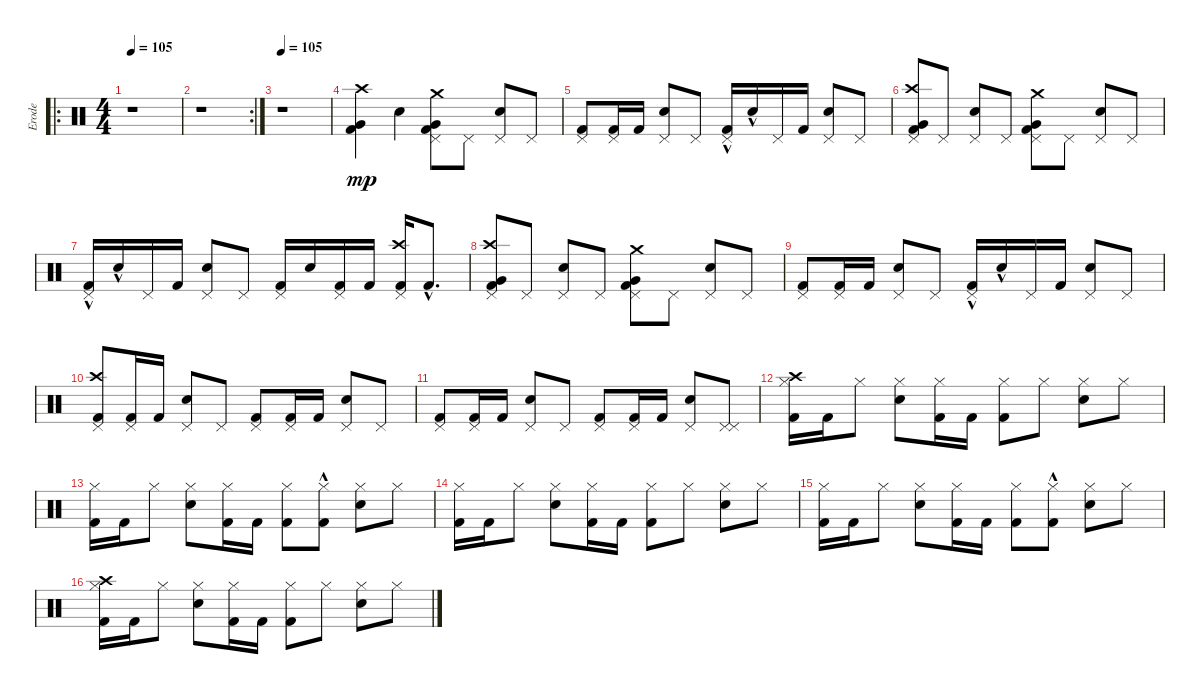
\track ("Erode" "Erode") {instrument percussion}
\staff {score}
\articulation defaults
\ro
\ts (4 4)
\tempo 105
\tempo 80
\tempo 105
\clef neutral
\ks c
r.1{dy mp} |
\rc 2
r.1 |
\tempo 105
r.1 |
("Kick (hit) 2" "Very Low Tom (hit)" "Crash high (hit)").4 "Snare (hit) 2".4 ("Kick (hit) 2" "Very Low Tom (hit)" "Pedal Hi-Hat (hit)" "Crash medium (hit)").8 "Pedal Hi-Hat (hit)".8 ("Snare (hit) 2" "Pedal Hi-Hat (hit)").8 "Pedal Hi-Hat (hit)".8 |
("Kick (hit) 2" "Pedal Hi-Hat (hit)").8 ("Kick (hit) 2" "Pedal Hi-Hat (hit)").16 "Kick (hit) 2".16 ("Snare (hit) 2" "Pedal Hi-Hat (hit)").8 "Pedal Hi-Hat (hit)".8 ("Kick (hit) 2"{hac} "Pedal Hi-Hat (hit)").16 "Snare (hit) 2"{hac}.16 "Pedal Hi-Hat (hit)".16 "Kick (hit) 2".16 ("Snare (hit) 2" "Pedal Hi-Hat (hit)").8 "Pedal Hi-Hat (hit)".8 |
("Kick (hit) 2" "Very Low Tom (hit)" "Pedal Hi-Hat (hit)" "Crash high (hit)").8 "Pedal Hi-Hat (hit)".8 ("Snare (hit) 2" "Pedal Hi-Hat (hit)").8 "Pedal Hi-Hat (hit)".8 ("Kick (hit) 2" "Very Low Tom (hit)" "Pedal Hi-Hat (hit)" "Crash medium (hit)").8 "Pedal Hi-Hat (hit)".8 ("Snare (hit) 2" "Pedal Hi-Hat (hit)").8 "Pedal Hi-Hat (hit)".8 |
("Kick (hit) 2"{hac} "Pedal Hi-Hat (hit)").16 "Snare (hit) 2"{hac}.16 "Pedal Hi-Hat (hit)".16 "Kick (hit) 2".16 ("Snare (hit) 2" "Pedal Hi-Hat (hit)").8 "Pedal Hi-Hat (hit)".8 ("Kick (hit) 2" "Pedal Hi-Hat (hit)").16 "Snare (hit) 2".16 ("Kick (hit) 2" "Pedal Hi-Hat (hit)").16 "Kick (hit) 2".16 ("Kick (hit) 2" "Pedal Hi-Hat (hit)" "Crash high (hit)").16 "Kick (hit) 2"{hac}.8{d} |
("Kick (hit) 2" "Very Low Tom (hit)" "Pedal Hi-Hat (hit)" "Crash high (hit)").8 "Pedal Hi-Hat (hit)".8 ("Snare (hit) 2" "Pedal Hi-Hat (hit)").8 "Pedal Hi-Hat (hit)".8 ("Kick (hit) 2" "Very Low Tom (hit)" "Pedal Hi-Hat (hit)" "Crash medium (hit)").8 "Pedal Hi-Hat (hit)".8 ("Snare (hit) 2" "Pedal Hi-Hat (hit)").8 "Pedal Hi-Hat (hit)".8 |
("Kick (hit) 2" "Pedal Hi-Hat (hit)").8 ("Kick (hit) 2" "Pedal Hi-Hat (hit)").16 "Kick (hit) 2".16 ("Snare (hit) 2" "Pedal Hi-Hat (hit)").8 "Pedal Hi-Hat (hit)".8 ("Kick (hit) 2"{hac} "Pedal Hi-Hat (hit)").16 "Snare (hit) 2"{hac}.16 "Pedal Hi-Hat (hit)".16 "Kick (hit) 2".16 ("Snare (hit) 2" "Pedal Hi-Hat (hit)").8 "Pedal Hi-Hat (hit)".8 |
("Kick (hit) 2" "Pedal Hi-Hat (hit)" "Crash high (hit)").8 ("Kick (hit) 2" "Pedal Hi-Hat (hit)").16 "Kick (hit) 2".16 ("Snare (hit) 2" "Pedal Hi-Hat (hit)").8 "Pedal Hi-Hat (hit)".8 ("Kick (hit) 2" "Pedal Hi-Hat (hit)").8 ("Kick (hit) 2" "Pedal Hi-Hat (hit)").16 "Kick (hit) 2".16 ("Snare (hit) 2" "Pedal Hi-Hat (hit)").8 "Pedal Hi-Hat (hit)".8 |
("Kick (hit) 2" "Pedal Hi-Hat (hit)").8 ("Kick (hit) 2" "Pedal Hi-Hat (hit)").16 "Kick (hit) 2".16 ("Snare (hit) 2" "Pedal Hi-Hat (hit)").8 "Pedal Hi-Hat (hit)".8 ("Kick (hit) 2" "Pedal Hi-Hat (hit)").8 ("Kick (hit) 2" "Pedal Hi-Hat (hit)").16 "Kick (hit) 2".16 ("Snare (hit) 2" "Pedal Hi-Hat (hit)").8 ("Pedal Hi-Hat (hit)" "Pedal Hi-Hat (hit)").8 |
("Kick (hit) 2" "Hi-Hat (closed)" "Crash high (hit)").16 "Kick (hit) 2".16 "Hi-Hat (closed)".8 ("Electric Snare (hit)" "Hi-Hat (closed)").8 ("Kick (hit) 2" "Hi-Hat (closed)").16 "Kick (hit) 2".16 ("Kick (hit) 2" "Hi-Hat (closed)").8 "Hi-Hat (closed)".8 ("Electric Snare (hit)" "Hi-Hat (closed)").8 "Hi-Hat (closed)".8 |
("Kick (hit) 2" "Hi-Hat (closed)").16 "Kick (hit) 2".16 "Hi-Hat (closed)".8 ("Electric Snare (hit)" "Hi-Hat (closed)").8 ("Kick (hit) 2" "Hi-Hat (closed)").16 "Kick (hit) 2".16 ("Kick (hit) 2" "Hi-Hat (closed)").8 ("Kick (hit) 2"{hac} "Hi-Hat (closed)").8 ("Electric Snare (hit)" "Hi-Hat (closed)").8 "Hi-Hat (closed)".8 |
("Kick (hit) 2" "Hi-Hat (closed)").16 "Kick (hit) 2".16 "Hi-Hat (closed)".8 ("Electric Snare (hit)" "Hi-Hat (closed)").8 ("Kick (hit) 2" "Hi-Hat (closed)").16 "Kick (hit) 2".16 ("Kick (hit) 2" "Hi-Hat (closed)").8 "Hi-Hat (closed)".8 ("Electric Snare (hit)" "Hi-Hat (closed)").8 "Hi-Hat (closed)".8 |
("Kick (hit) 2" "Hi-Hat (closed)").16 "Kick (hit) 2".16 "Hi-Hat (closed)".8 ("Electric Snare (hit)" "Hi-Hat (closed)").8 ("Kick (hit) 2" "Hi-Hat (closed)").16 "Kick (hit) 2".16 ("Kick (hit) 2" "Hi-Hat (closed)").8 ("Kick (hit) 2"{hac} "Hi-Hat (closed)").8 ("Electric Snare (hit)" "Hi-Hat (closed)").8 "Hi-Hat (closed)".8 |
("Kick (hit) 2" "Hi-Hat (closed)" "Crash high (hit)").16 "Kick (hit) 2".16 "Hi-Hat (closed)".8 ("Electric Snare (hit)" "Hi-Hat (closed)").8 ("Kick (hit) 2" "Hi-Hat (closed)").16 "Kick (hit) 2".16 ("Kick (hit) 2" "Hi-Hat (closed)").8 "Hi-Hat (closed)".8 ("Electric Snare (hit)" "Hi-Hat (closed)").8 "Hi-Hat (closed)".8
